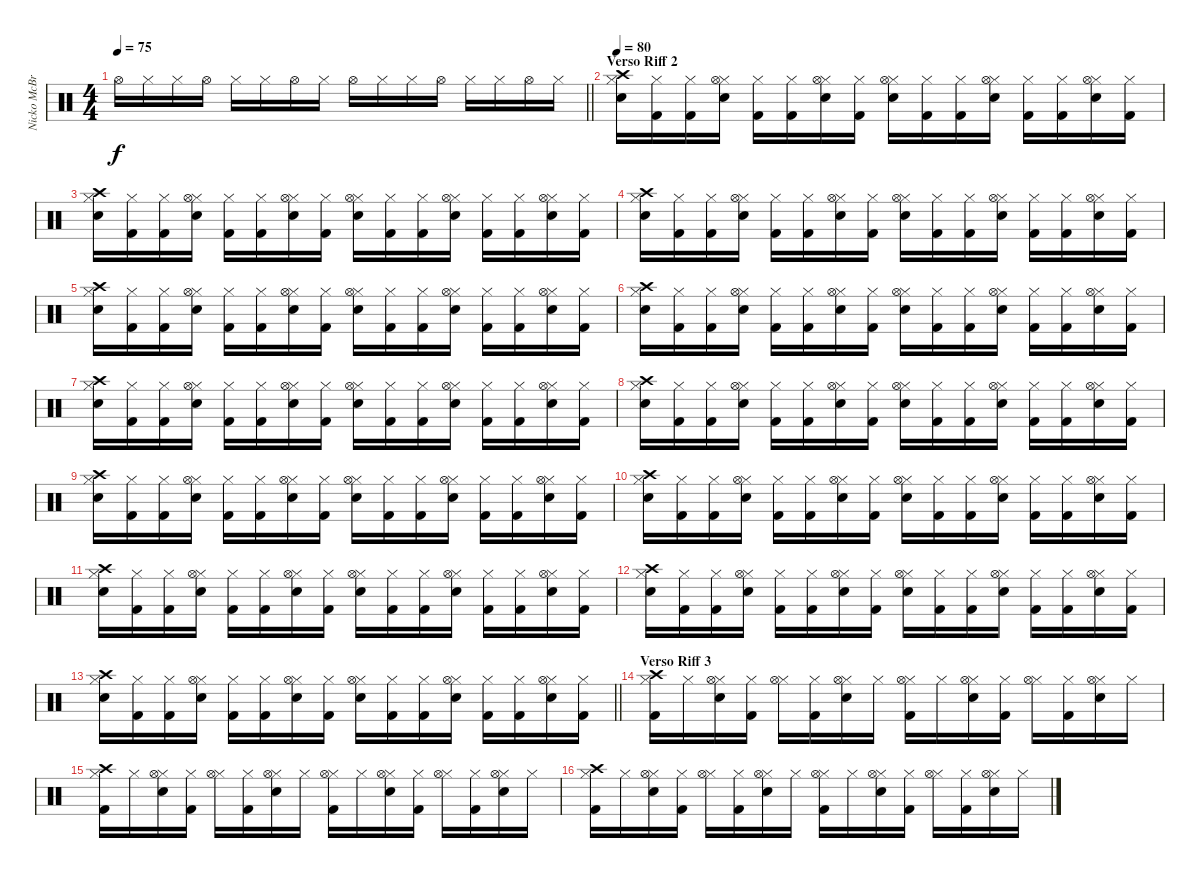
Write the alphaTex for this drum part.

\track ("Nicko McBrain" "Nicko McBr") {instrument percussion}
\staff {score}
\articulation defaults
\ts (4 4)
\tempo 75
\clef neutral
\barLineRight lightlight
\ks c "Hi-Hat (open)".16{dy f} "Hi-Hat (closed)".16 "Hi-Hat (closed)".16 "Hi-Hat (open)".16 "Hi-Hat (closed)".16 "Hi-Hat (closed)".16 "Hi-Hat (open)".16 "Hi-Hat (closed)".16 "Hi-Hat (open)".16 "Hi-Hat (closed)".16 "Hi-Hat (closed)".16 "Hi-Hat (open)".16 "Hi-Hat (closed)".16 "Hi-Hat (closed)".16 "Hi-Hat (open)".16 "Hi-Hat (closed)".16
|
\section ("" "Verso Riff 2")
\tempo 80
("Snare (hit) 2" "Hi-Hat (closed)" "Crash high (hit)").16 ("Kick (hit) 2" "Hi-Hat (closed)").16 ("Kick (hit) 2" "Hi-Hat (closed)").16 ("Snare (hit) 2" "Hi-Hat (closed)" "Hi-Hat (open)").16 ("Kick (hit) 2" "Hi-Hat (closed)").16 ("Kick (hit) 2" "Hi-Hat (closed)").16 ("Snare (hit) 2" "Hi-Hat (closed)" "Hi-Hat (open)").16 ("Kick (hit) 2" "Hi-Hat (closed)").16 ("Snare (hit) 2" "Hi-Hat (closed)" "Hi-Hat (open)").16 ("Kick (hit) 2" "Hi-Hat (closed)").16 ("Kick (hit) 2" "Hi-Hat (closed)").16 ("Snare (hit) 2" "Hi-Hat (closed)" "Hi-Hat (open)").16 ("Kick (hit) 2" "Hi-Hat (closed)").16 ("Kick (hit) 2" "Hi-Hat (closed)").16 ("Snare (hit) 2" "Hi-Hat (closed)" "Hi-Hat (open)").16 ("Kick (hit) 2" "Hi-Hat (closed)").16 |
("Snare (hit) 2" "Hi-Hat (closed)" "Crash high (hit)").16 ("Kick (hit) 2" "Hi-Hat (closed)").16 ("Kick (hit) 2" "Hi-Hat (closed)").16 ("Snare (hit) 2" "Hi-Hat (closed)" "Hi-Hat (open)").16 ("Kick (hit) 2" "Hi-Hat (closed)").16 ("Kick (hit) 2" "Hi-Hat (closed)").16 ("Snare (hit) 2" "Hi-Hat (closed)" "Hi-Hat (open)").16 ("Kick (hit) 2" "Hi-Hat (closed)").16 ("Snare (hit) 2" "Hi-Hat (closed)" "Hi-Hat (open)").16 ("Kick (hit) 2" "Hi-Hat (closed)").16 ("Kick (hit) 2" "Hi-Hat (closed)").16 ("Snare (hit) 2" "Hi-Hat (closed)" "Hi-Hat (open)").16 ("Kick (hit) 2" "Hi-Hat (closed)").16 ("Kick (hit) 2" "Hi-Hat (closed)").16 ("Snare (hit) 2" "Hi-Hat (closed)" "Hi-Hat (open)").16 ("Kick (hit) 2" "Hi-Hat (closed)").16 |
("Snare (hit) 2" "Hi-Hat (closed)" "Crash high (hit)").16 ("Kick (hit) 2" "Hi-Hat (closed)").16 ("Kick (hit) 2" "Hi-Hat (closed)").16 ("Snare (hit) 2" "Hi-Hat (closed)" "Hi-Hat (open)").16 ("Kick (hit) 2" "Hi-Hat (closed)").16 ("Kick (hit) 2" "Hi-Hat (closed)").16 ("Snare (hit) 2" "Hi-Hat (closed)" "Hi-Hat (open)").16 ("Kick (hit) 2" "Hi-Hat (closed)").16 ("Snare (hit) 2" "Hi-Hat (closed)" "Hi-Hat (open)").16 ("Kick (hit) 2" "Hi-Hat (closed)").16 ("Kick (hit) 2" "Hi-Hat (closed)").16 ("Snare (hit) 2" "Hi-Hat (closed)" "Hi-Hat (open)").16 ("Kick (hit) 2" "Hi-Hat (closed)").16 ("Kick (hit) 2" "Hi-Hat (closed)").16 ("Snare (hit) 2" "Hi-Hat (closed)" "Hi-Hat (open)").16 ("Kick (hit) 2" "Hi-Hat (closed)").16 |
("Snare (hit) 2" "Hi-Hat (closed)" "Crash high (hit)").16 ("Kick (hit) 2" "Hi-Hat (closed)").16 ("Kick (hit) 2" "Hi-Hat (closed)").16 ("Snare (hit) 2" "Hi-Hat (closed)" "Hi-Hat (open)").16 ("Kick (hit) 2" "Hi-Hat (closed)").16 ("Kick (hit) 2" "Hi-Hat (closed)").16 ("Snare (hit) 2" "Hi-Hat (closed)" "Hi-Hat (open)").16 ("Kick (hit) 2" "Hi-Hat (closed)").16 ("Snare (hit) 2" "Hi-Hat (closed)" "Hi-Hat (open)").16 ("Kick (hit) 2" "Hi-Hat (closed)").16 ("Kick (hit) 2" "Hi-Hat (closed)").16 ("Snare (hit) 2" "Hi-Hat (closed)" "Hi-Hat (open)").16 ("Kick (hit) 2" "Hi-Hat (closed)").16 ("Kick (hit) 2" "Hi-Hat (closed)").16 ("Snare (hit) 2" "Hi-Hat (closed)" "Hi-Hat (open)").16 ("Kick (hit) 2" "Hi-Hat (closed)").16 |
("Snare (hit) 2" "Hi-Hat (closed)" "Crash high (hit)").16 ("Kick (hit) 2" "Hi-Hat (closed)").16 ("Kick (hit) 2" "Hi-Hat (closed)").16 ("Snare (hit) 2" "Hi-Hat (closed)" "Hi-Hat (open)").16 ("Kick (hit) 2" "Hi-Hat (closed)").16 ("Kick (hit) 2" "Hi-Hat (closed)").16 ("Snare (hit) 2" "Hi-Hat (closed)" "Hi-Hat (open)").16 ("Kick (hit) 2" "Hi-Hat (closed)").16 ("Snare (hit) 2" "Hi-Hat (closed)" "Hi-Hat (open)").16 ("Kick (hit) 2" "Hi-Hat (closed)").16 ("Kick (hit) 2" "Hi-Hat (closed)").16 ("Snare (hit) 2" "Hi-Hat (closed)" "Hi-Hat (open)").16 ("Kick (hit) 2" "Hi-Hat (closed)").16 ("Kick (hit) 2" "Hi-Hat (closed)").16 ("Snare (hit) 2" "Hi-Hat (closed)" "Hi-Hat (open)").16 ("Kick (hit) 2" "Hi-Hat (closed)").16 |
("Snare (hit) 2" "Hi-Hat (closed)" "Crash high (hit)").16 ("Kick (hit) 2" "Hi-Hat (closed)").16 ("Kick (hit) 2" "Hi-Hat (closed)").16 ("Snare (hit) 2" "Hi-Hat (closed)" "Hi-Hat (open)").16 ("Kick (hit) 2" "Hi-Hat (closed)").16 ("Kick (hit) 2" "Hi-Hat (closed)").16 ("Snare (hit) 2" "Hi-Hat (closed)" "Hi-Hat (open)").16 ("Kick (hit) 2" "Hi-Hat (closed)").16 ("Snare (hit) 2" "Hi-Hat (closed)" "Hi-Hat (open)").16 ("Kick (hit) 2" "Hi-Hat (closed)").16 ("Kick (hit) 2" "Hi-Hat (closed)").16 ("Snare (hit) 2" "Hi-Hat (closed)" "Hi-Hat (open)").16 ("Kick (hit) 2" "Hi-Hat (closed)").16 ("Kick (hit) 2" "Hi-Hat (closed)").16 ("Snare (hit) 2" "Hi-Hat (closed)" "Hi-Hat (open)").16 ("Kick (hit) 2" "Hi-Hat (closed)").16 |
("Snare (hit) 2" "Hi-Hat (closed)" "Crash high (hit)").16 ("Kick (hit) 2" "Hi-Hat (closed)").16 ("Kick (hit) 2" "Hi-Hat (closed)").16 ("Snare (hit) 2" "Hi-Hat (closed)" "Hi-Hat (open)").16 ("Kick (hit) 2" "Hi-Hat (closed)").16 ("Kick (hit) 2" "Hi-Hat (closed)").16 ("Snare (hit) 2" "Hi-Hat (closed)" "Hi-Hat (open)").16 ("Kick (hit) 2" "Hi-Hat (closed)").16 ("Snare (hit) 2" "Hi-Hat (closed)" "Hi-Hat (open)").16 ("Kick (hit) 2" "Hi-Hat (closed)").16 ("Kick (hit) 2" "Hi-Hat (closed)").16 ("Snare (hit) 2" "Hi-Hat (closed)" "Hi-Hat (open)").16 ("Kick (hit) 2" "Hi-Hat (closed)").16 ("Kick (hit) 2" "Hi-Hat (closed)").16 ("Snare (hit) 2" "Hi-Hat (closed)" "Hi-Hat (open)").16 ("Kick (hit) 2" "Hi-Hat (closed)").16 |
("Snare (hit) 2" "Hi-Hat (closed)" "Crash high (hit)").16 ("Kick (hit) 2" "Hi-Hat (closed)").16 ("Kick (hit) 2" "Hi-Hat (closed)").16 ("Snare (hit) 2" "Hi-Hat (closed)" "Hi-Hat (open)").16 ("Kick (hit) 2" "Hi-Hat (closed)").16 ("Kick (hit) 2" "Hi-Hat (closed)").16 ("Snare (hit) 2" "Hi-Hat (closed)" "Hi-Hat (open)").16 ("Kick (hit) 2" "Hi-Hat (closed)").16 ("Snare (hit) 2" "Hi-Hat (closed)" "Hi-Hat (open)").16 ("Kick (hit) 2" "Hi-Hat (closed)").16 ("Kick (hit) 2" "Hi-Hat (closed)").16 ("Snare (hit) 2" "Hi-Hat (closed)" "Hi-Hat (open)").16 ("Kick (hit) 2" "Hi-Hat (closed)").16 ("Kick (hit) 2" "Hi-Hat (closed)").16 ("Snare (hit) 2" "Hi-Hat (closed)" "Hi-Hat (open)").16 ("Kick (hit) 2" "Hi-Hat (closed)").16 |
("Snare (hit) 2" "Hi-Hat (closed)" "Crash high (hit)").16 ("Kick (hit) 2" "Hi-Hat (closed)").16 ("Kick (hit) 2" "Hi-Hat (closed)").16 ("Snare (hit) 2" "Hi-Hat (closed)" "Hi-Hat (open)").16 ("Kick (hit) 2" "Hi-Hat (closed)").16 ("Kick (hit) 2" "Hi-Hat (closed)").16 ("Snare (hit) 2" "Hi-Hat (closed)" "Hi-Hat (open)").16 ("Kick (hit) 2" "Hi-Hat (closed)").16 ("Snare (hit) 2" "Hi-Hat (closed)" "Hi-Hat (open)").16 ("Kick (hit) 2" "Hi-Hat (closed)").16 ("Kick (hit) 2" "Hi-Hat (closed)").16 ("Snare (hit) 2" "Hi-Hat (closed)" "Hi-Hat (open)").16 ("Kick (hit) 2" "Hi-Hat (closed)").16 ("Kick (hit) 2" "Hi-Hat (closed)").16 ("Snare (hit) 2" "Hi-Hat (closed)" "Hi-Hat (open)").16 ("Kick (hit) 2" "Hi-Hat (closed)").16 |
("Snare (hit) 2" "Hi-Hat (closed)" "Crash high (hit)").16 ("Kick (hit) 2" "Hi-Hat (closed)").16 ("Kick (hit) 2" "Hi-Hat (closed)").16 ("Snare (hit) 2" "Hi-Hat (closed)" "Hi-Hat (open)").16 ("Kick (hit) 2" "Hi-Hat (closed)").16 ("Kick (hit) 2" "Hi-Hat (closed)").16 ("Snare (hit) 2" "Hi-Hat (closed)" "Hi-Hat (open)").16 ("Kick (hit) 2" "Hi-Hat (closed)").16 ("Snare (hit) 2" "Hi-Hat (closed)" "Hi-Hat (open)").16 ("Kick (hit) 2" "Hi-Hat (closed)").16 ("Kick (hit) 2" "Hi-Hat (closed)").16 ("Snare (hit) 2" "Hi-Hat (closed)" "Hi-Hat (open)").16 ("Kick (hit) 2" "Hi-Hat (closed)").16 ("Kick (hit) 2" "Hi-Hat (closed)").16 ("Snare (hit) 2" "Hi-Hat (closed)" "Hi-Hat (open)").16 ("Kick (hit) 2" "Hi-Hat (closed)").16 |
("Snare (hit) 2" "Hi-Hat (closed)" "Crash high (hit)").16 ("Kick (hit) 2" "Hi-Hat (closed)").16 ("Kick (hit) 2" "Hi-Hat (closed)").16 ("Snare (hit) 2" "Hi-Hat (closed)" "Hi-Hat (open)").16 ("Kick (hit) 2" "Hi-Hat (closed)").16 ("Kick (hit) 2" "Hi-Hat (closed)").16 ("Snare (hit) 2" "Hi-Hat (closed)" "Hi-Hat (open)").16 ("Kick (hit) 2" "Hi-Hat (closed)").16 ("Snare (hit) 2" "Hi-Hat (closed)" "Hi-Hat (open)").16 ("Kick (hit) 2" "Hi-Hat (closed)").16 ("Kick (hit) 2" "Hi-Hat (closed)").16 ("Snare (hit) 2" "Hi-Hat (closed)" "Hi-Hat (open)").16 ("Kick (hit) 2" "Hi-Hat (closed)").16 ("Kick (hit) 2" "Hi-Hat (closed)").16 ("Snare (hit) 2" "Hi-Hat (closed)" "Hi-Hat (open)").16 ("Kick (hit) 2" "Hi-Hat (closed)").16 |
\barLineRight lightlight
("Snare (hit) 2" "Hi-Hat (closed)" "Crash high (hit)").16 ("Kick (hit) 2" "Hi-Hat (closed)").16 ("Kick (hit) 2" "Hi-Hat (closed)").16 ("Snare (hit) 2" "Hi-Hat (closed)" "Hi-Hat (open)").16 ("Kick (hit) 2" "Hi-Hat (closed)").16 ("Kick (hit) 2" "Hi-Hat (closed)").16 ("Snare (hit) 2" "Hi-Hat (closed)" "Hi-Hat (open)").16 ("Kick (hit) 2" "Hi-Hat (closed)").16 ("Snare (hit) 2" "Hi-Hat (closed)" "Hi-Hat (open)").16 ("Kick (hit) 2" "Hi-Hat (closed)").16 ("Kick (hit) 2" "Hi-Hat (closed)").16 ("Snare (hit) 2" "Hi-Hat (closed)" "Hi-Hat (open)").16 ("Kick (hit) 2" "Hi-Hat (closed)").16 ("Kick (hit) 2" "Hi-Hat (closed)").16 ("Snare (hit) 2" "Hi-Hat (closed)" "Hi-Hat (open)").16 ("Kick (hit) 2" "Hi-Hat (closed)").16 |
\section ("" "Verso Riff 3")
("Kick (hit) 2" "Hi-Hat (closed)" "Crash high (hit)").16 "Hi-Hat (closed)".16 ("Snare (hit) 2" "Hi-Hat (closed)" "Hi-Hat (open)").16 ("Kick (hit) 2" "Hi-Hat (closed)").16 ("Hi-Hat (closed)" "Hi-Hat (open)").16 ("Kick (hit) 2" "Hi-Hat (closed)").16 ("Snare (hit) 2" "Hi-Hat (closed)" "Hi-Hat (open)").16 "Hi-Hat (closed)".16 ("Kick (hit) 2" "Hi-Hat (closed)" "Hi-Hat (open)").16 "Hi-Hat (closed)".16 ("Snare (hit) 2" "Hi-Hat (closed)" "Hi-Hat (open)").16 ("Kick (hit) 2" "Hi-Hat (closed)").16 ("Hi-Hat (closed)" "Hi-Hat (open)").16 ("Kick (hit) 2" "Hi-Hat (closed)").16 ("Snare (hit) 2" "Hi-Hat (closed)" "Hi-Hat (open)").16 "Hi-Hat (closed)".16 |
("Kick (hit) 2" "Hi-Hat (closed)" "Crash high (hit)").16 "Hi-Hat (closed)".16 ("Snare (hit) 2" "Hi-Hat (closed)" "Hi-Hat (open)").16 ("Kick (hit) 2" "Hi-Hat (closed)").16 ("Hi-Hat (closed)" "Hi-Hat (open)").16 ("Kick (hit) 2" "Hi-Hat (closed)").16 ("Snare (hit) 2" "Hi-Hat (closed)" "Hi-Hat (open)").16 "Hi-Hat (closed)".16 ("Kick (hit) 2" "Hi-Hat (closed)" "Hi-Hat (open)").16 "Hi-Hat (closed)".16 ("Snare (hit) 2" "Hi-Hat (closed)" "Hi-Hat (open)").16 ("Kick (hit) 2" "Hi-Hat (closed)").16 ("Hi-Hat (closed)" "Hi-Hat (open)").16 ("Kick (hit) 2" "Hi-Hat (closed)").16 ("Snare (hit) 2" "Hi-Hat (closed)" "Hi-Hat (open)").16 "Hi-Hat (closed)".16 |
("Kick (hit) 2" "Hi-Hat (closed)" "Crash high (hit)").16 "Hi-Hat (closed)".16 ("Snare (hit) 2" "Hi-Hat (closed)" "Hi-Hat (open)").16 ("Kick (hit) 2" "Hi-Hat (closed)").16 ("Hi-Hat (closed)" "Hi-Hat (open)").16 ("Kick (hit) 2" "Hi-Hat (closed)").16 ("Snare (hit) 2" "Hi-Hat (closed)" "Hi-Hat (open)").16 "Hi-Hat (closed)".16 ("Kick (hit) 2" "Hi-Hat (closed)" "Hi-Hat (open)").16 "Hi-Hat (closed)".16 ("Snare (hit) 2" "Hi-Hat (closed)" "Hi-Hat (open)").16 ("Kick (hit) 2" "Hi-Hat (closed)").16 ("Hi-Hat (closed)" "Hi-Hat (open)").16 ("Kick (hit) 2" "Hi-Hat (closed)").16 ("Snare (hit) 2" "Hi-Hat (closed)" "Hi-Hat (open)").16 "Hi-Hat (closed)".16
